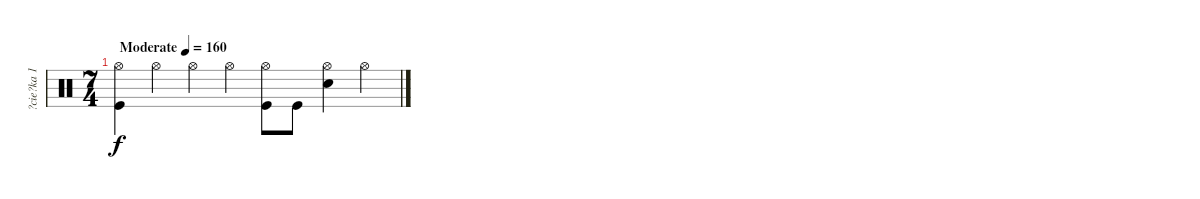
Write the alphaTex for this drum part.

\track ("?cie?ka 1" "?cie?ka 1") {instrument percussion}
\staff {score}
\articulation defaults
\ts (7 4)
\tempo (160 "Moderate")
\clef neutral
\ks c
("Hi-Hat (open)" "Kick (hit)").4{dy f} "Hi-Hat (open)".4 "Hi-Hat (open)".4 "Hi-Hat (open)".4 ("Hi-Hat (open)" "Kick (hit)").8 "Kick (hit)".8 ("Hi-Hat (open)" "Snare (hit) 2").4 "Hi-Hat (open)".4
